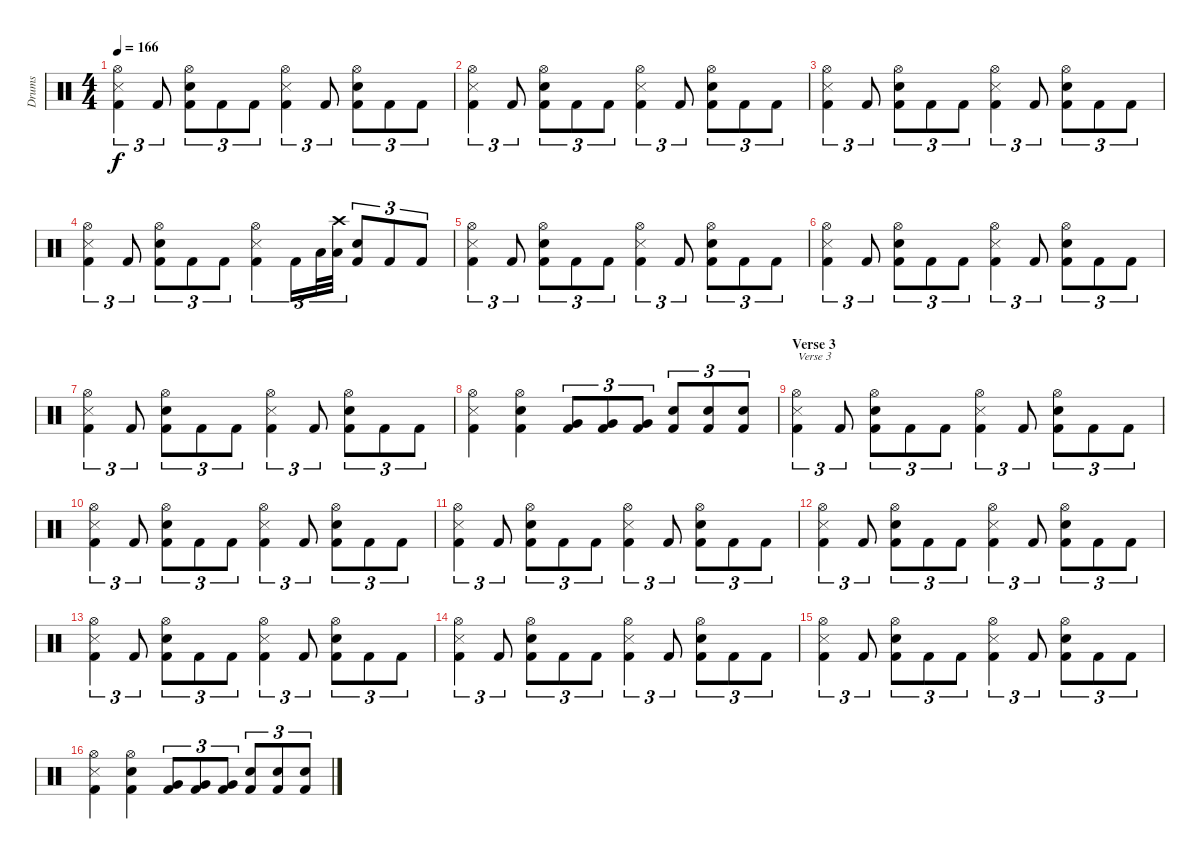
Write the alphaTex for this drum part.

\track ("Drums" "Drums") {instrument percussion}
\staff {score}
\articulation defaults
\ts (4 4)
\tempo 166
\clef neutral
\ks c
("Hi-Hat (open)" "Snare (side stick) 3" "Kick (hit) 2").4{tu (3 2) dy f} "Kick (hit) 2".8{tu (3 2)} ("Hi-Hat (open)" "Electric Snare (hit)" "Kick (hit) 2").8{tu (3 2)} "Kick (hit) 2".8{tu (3 2)} "Kick (hit) 2".8{tu (3 2)} ("Hi-Hat (open)" "Snare (side stick) 3" "Kick (hit) 2").4{tu (3 2)} "Kick (hit) 2".8{tu (3 2)} ("Hi-Hat (open)" "Electric Snare (hit)" "Kick (hit) 2").8{tu (3 2)} "Kick (hit) 2".8{tu (3 2)} "Kick (hit) 2".8{tu (3 2)} |
("Hi-Hat (open)" "Snare (side stick) 3" "Kick (hit) 2").4{tu (3 2)} "Kick (hit) 2".8{tu (3 2)} ("Hi-Hat (open)" "Electric Snare (hit)" "Kick (hit) 2").8{tu (3 2)} "Kick (hit) 2".8{tu (3 2)} "Kick (hit) 2".8{tu (3 2)} ("Hi-Hat (open)" "Snare (side stick) 3" "Kick (hit) 2").4{tu (3 2)} "Kick (hit) 2".8{tu (3 2)} ("Hi-Hat (open)" "Electric Snare (hit)" "Kick (hit) 2").8{tu (3 2)} "Kick (hit) 2".8{tu (3 2)} "Kick (hit) 2".8{tu (3 2)} |
("Hi-Hat (open)" "Snare (side stick) 3" "Kick (hit) 2").4{tu (3 2)} "Kick (hit) 2".8{tu (3 2)} ("Hi-Hat (open)" "Electric Snare (hit)" "Kick (hit) 2").8{tu (3 2)} "Kick (hit) 2".8{tu (3 2)} "Kick (hit) 2".8{tu (3 2)} ("Hi-Hat (open)" "Snare (side stick) 3" "Kick (hit) 2").4{tu (3 2)} "Kick (hit) 2".8{tu (3 2)} ("Hi-Hat (open)" "Electric Snare (hit)" "Kick (hit) 2").8{tu (3 2)} "Kick (hit) 2".8{tu (3 2)} "Kick (hit) 2".8{tu (3 2)} |
("Hi-Hat (open)" "Snare (side stick) 3" "Kick (hit) 2").4{tu (3 2)} "Kick (hit) 2".8{tu (3 2)} ("Hi-Hat (open)" "Electric Snare (hit)" "Kick (hit) 2").8{tu (3 2)} "Kick (hit) 2".8{tu (3 2)} "Kick (hit) 2".8{tu (3 2)} ("Hi-Hat (open)" "Snare (side stick) 3" "Kick (hit) 2").4{tu (3 2)} "Kick (hit) 2".16{tu (3 2)} "Low Tom (hit)".32{tu (3 2)} ("Crash high (hit)" "Low Tom (hit)").32{tu (3 2)} ("Electric Snare (hit)" "Kick (hit) 2").8{tu (3 2)} "Kick (hit) 2".8{tu (3 2)} "Kick (hit) 2".8{tu (3 2)} |
("Hi-Hat (open)" "Snare (side stick) 3" "Kick (hit) 2").4{tu (3 2)} "Kick (hit) 2".8{tu (3 2)} ("Hi-Hat (open)" "Electric Snare (hit)" "Kick (hit) 2").8{tu (3 2)} "Kick (hit) 2".8{tu (3 2)} "Kick (hit) 2".8{tu (3 2)} ("Hi-Hat (open)" "Snare (side stick) 3" "Kick (hit) 2").4{tu (3 2)} "Kick (hit) 2".8{tu (3 2)} ("Hi-Hat (open)" "Electric Snare (hit)" "Kick (hit) 2").8{tu (3 2)} "Kick (hit) 2".8{tu (3 2)} "Kick (hit) 2".8{tu (3 2)} |
("Hi-Hat (open)" "Snare (side stick) 3" "Kick (hit) 2").4{tu (3 2)} "Kick (hit) 2".8{tu (3 2)} ("Hi-Hat (open)" "Electric Snare (hit)" "Kick (hit) 2").8{tu (3 2)} "Kick (hit) 2".8{tu (3 2)} "Kick (hit) 2".8{tu (3 2)} ("Hi-Hat (open)" "Snare (side stick) 3" "Kick (hit) 2").4{tu (3 2)} "Kick (hit) 2".8{tu (3 2)} ("Hi-Hat (open)" "Electric Snare (hit)" "Kick (hit) 2").8{tu (3 2)} "Kick (hit) 2".8{tu (3 2)} "Kick (hit) 2".8{tu (3 2)} |
("Hi-Hat (open)" "Snare (side stick) 3" "Kick (hit) 2").4{tu (3 2)} "Kick (hit) 2".8{tu (3 2)} ("Hi-Hat (open)" "Electric Snare (hit)" "Kick (hit) 2").8{tu (3 2)} "Kick (hit) 2".8{tu (3 2)} "Kick (hit) 2".8{tu (3 2)} ("Hi-Hat (open)" "Snare (side stick) 3" "Kick (hit) 2").4{tu (3 2)} "Kick (hit) 2".8{tu (3 2)} ("Hi-Hat (open)" "Electric Snare (hit)" "Kick (hit) 2").8{tu (3 2)} "Kick (hit) 2".8{tu (3 2)} "Kick (hit) 2".8{tu (3 2)} |
("Hi-Hat (open)" "Snare (side stick) 3" "Kick (hit) 2").4 ("Hi-Hat (open)" "Electric Snare (hit)" "Kick (hit) 2").4 ("Very Low Tom (hit)" "Kick (hit) 2").8{tu (3 2)} ("Very Low Tom (hit)" "Kick (hit) 2").8{tu (3 2)} ("Very Low Tom (hit)" "Kick (hit) 2").8{tu (3 2)} ("Electric Snare (hit)" "Kick (hit) 2").8{tu (3 2)} ("Electric Snare (hit)" "Kick (hit) 2").8{tu (3 2)} ("Electric Snare (hit)" "Kick (hit) 2").8{tu (3 2)} |
\section ("" "Verse 3")
("Hi-Hat (open)" "Snare (side stick) 3" "Kick (hit) 2").4{tu (3 2) txt "Verse 3"} "Kick (hit) 2".8{tu (3 2)} ("Hi-Hat (open)" "Electric Snare (hit)" "Kick (hit) 2").8{tu (3 2)} "Kick (hit) 2".8{tu (3 2)} "Kick (hit) 2".8{tu (3 2)} ("Hi-Hat (open)" "Snare (side stick) 3" "Kick (hit) 2").4{tu (3 2)} "Kick (hit) 2".8{tu (3 2)} ("Hi-Hat (open)" "Electric Snare (hit)" "Kick (hit) 2").8{tu (3 2)} "Kick (hit) 2".8{tu (3 2)} "Kick (hit) 2".8{tu (3 2)} |
("Hi-Hat (open)" "Snare (side stick) 3" "Kick (hit) 2").4{tu (3 2)} "Kick (hit) 2".8{tu (3 2)} ("Hi-Hat (open)" "Electric Snare (hit)" "Kick (hit) 2").8{tu (3 2)} "Kick (hit) 2".8{tu (3 2)} "Kick (hit) 2".8{tu (3 2)} ("Hi-Hat (open)" "Snare (side stick) 3" "Kick (hit) 2").4{tu (3 2)} "Kick (hit) 2".8{tu (3 2)} ("Hi-Hat (open)" "Electric Snare (hit)" "Kick (hit) 2").8{tu (3 2)} "Kick (hit) 2".8{tu (3 2)} "Kick (hit) 2".8{tu (3 2)} |
("Hi-Hat (open)" "Snare (side stick) 3" "Kick (hit) 2").4{tu (3 2)} "Kick (hit) 2".8{tu (3 2)} ("Hi-Hat (open)" "Electric Snare (hit)" "Kick (hit) 2").8{tu (3 2)} "Kick (hit) 2".8{tu (3 2)} "Kick (hit) 2".8{tu (3 2)} ("Hi-Hat (open)" "Snare (side stick) 3" "Kick (hit) 2").4{tu (3 2)} "Kick (hit) 2".8{tu (3 2)} ("Hi-Hat (open)" "Electric Snare (hit)" "Kick (hit) 2").8{tu (3 2)} "Kick (hit) 2".8{tu (3 2)} "Kick (hit) 2".8{tu (3 2)} |
("Hi-Hat (open)" "Snare (side stick) 3" "Kick (hit) 2").4{tu (3 2)} "Kick (hit) 2".8{tu (3 2)} ("Hi-Hat (open)" "Electric Snare (hit)" "Kick (hit) 2").8{tu (3 2)} "Kick (hit) 2".8{tu (3 2)} "Kick (hit) 2".8{tu (3 2)} ("Hi-Hat (open)" "Snare (side stick) 3" "Kick (hit) 2").4{tu (3 2)} "Kick (hit) 2".8{tu (3 2)} ("Hi-Hat (open)" "Electric Snare (hit)" "Kick (hit) 2").8{tu (3 2)} "Kick (hit) 2".8{tu (3 2)} "Kick (hit) 2".8{tu (3 2)} |
("Hi-Hat (open)" "Snare (side stick) 3" "Kick (hit) 2").4{tu (3 2)} "Kick (hit) 2".8{tu (3 2)} ("Hi-Hat (open)" "Electric Snare (hit)" "Kick (hit) 2").8{tu (3 2)} "Kick (hit) 2".8{tu (3 2)} "Kick (hit) 2".8{tu (3 2)} ("Hi-Hat (open)" "Snare (side stick) 3" "Kick (hit) 2").4{tu (3 2)} "Kick (hit) 2".8{tu (3 2)} ("Hi-Hat (open)" "Electric Snare (hit)" "Kick (hit) 2").8{tu (3 2)} "Kick (hit) 2".8{tu (3 2)} "Kick (hit) 2".8{tu (3 2)} |
("Hi-Hat (open)" "Snare (side stick) 3" "Kick (hit) 2").4{tu (3 2)} "Kick (hit) 2".8{tu (3 2)} ("Hi-Hat (open)" "Electric Snare (hit)" "Kick (hit) 2").8{tu (3 2)} "Kick (hit) 2".8{tu (3 2)} "Kick (hit) 2".8{tu (3 2)} ("Hi-Hat (open)" "Snare (side stick) 3" "Kick (hit) 2").4{tu (3 2)} "Kick (hit) 2".8{tu (3 2)} ("Hi-Hat (open)" "Electric Snare (hit)" "Kick (hit) 2").8{tu (3 2)} "Kick (hit) 2".8{tu (3 2)} "Kick (hit) 2".8{tu (3 2)} |
("Hi-Hat (open)" "Snare (side stick) 3" "Kick (hit) 2").4{tu (3 2)} "Kick (hit) 2".8{tu (3 2)} ("Hi-Hat (open)" "Electric Snare (hit)" "Kick (hit) 2").8{tu (3 2)} "Kick (hit) 2".8{tu (3 2)} "Kick (hit) 2".8{tu (3 2)} ("Hi-Hat (open)" "Snare (side stick) 3" "Kick (hit) 2").4{tu (3 2)} "Kick (hit) 2".8{tu (3 2)} ("Hi-Hat (open)" "Electric Snare (hit)" "Kick (hit) 2").8{tu (3 2)} "Kick (hit) 2".8{tu (3 2)} "Kick (hit) 2".8{tu (3 2)} |
("Hi-Hat (open)" "Snare (side stick) 3" "Kick (hit) 2").4 ("Hi-Hat (open)" "Electric Snare (hit)" "Kick (hit) 2").4 ("Very Low Tom (hit)" "Kick (hit) 2").8{tu (3 2)} ("Very Low Tom (hit)" "Kick (hit) 2").8{tu (3 2)} ("Very Low Tom (hit)" "Kick (hit) 2").8{tu (3 2)} ("Electric Snare (hit)" "Kick (hit) 2").8{tu (3 2)} ("Electric Snare (hit)" "Kick (hit) 2").8{tu (3 2)} ("Electric Snare (hit)" "Kick (hit) 2").8{tu (3 2)}
